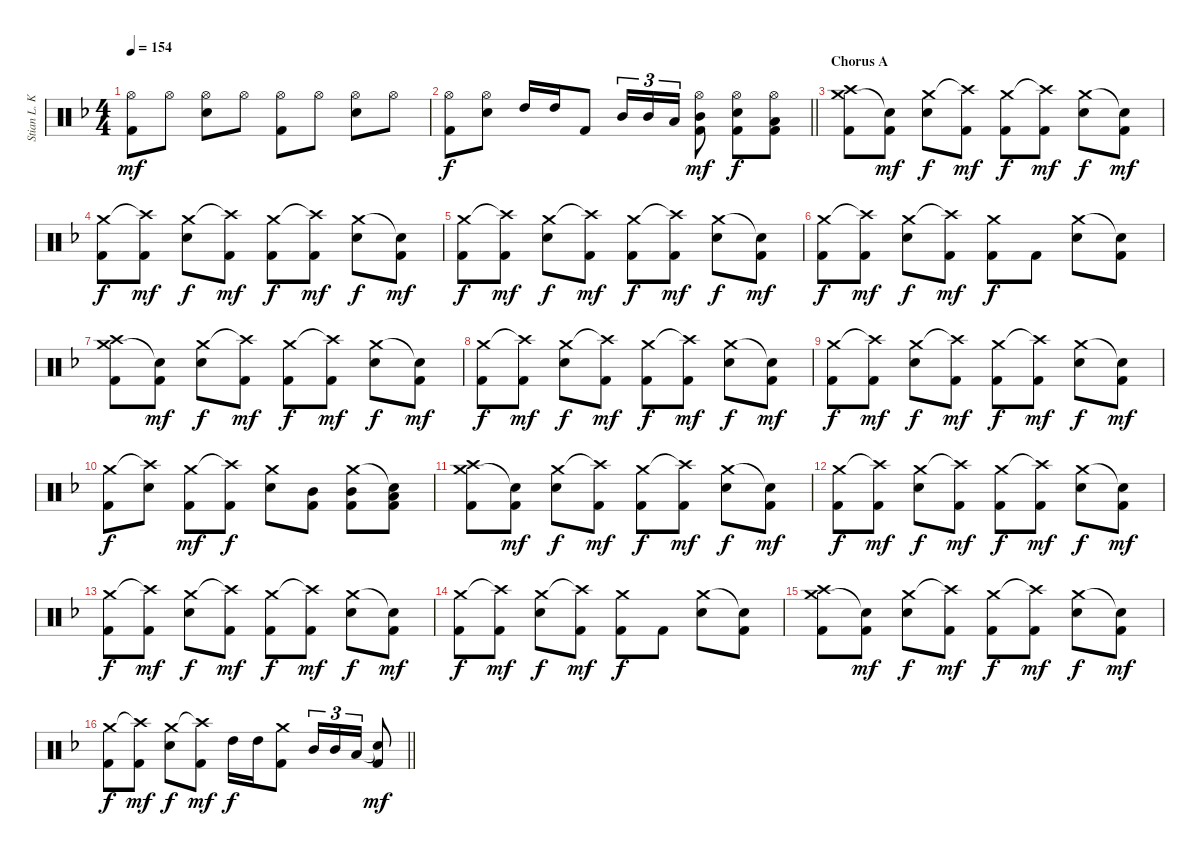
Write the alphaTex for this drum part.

\track ("Stian L. Kristoffersen" "Stian L. K") {instrument percussion}
\staff {score}
\articulation defaults
\ts (4 4)
\tempo 154
\clef neutral
\ks f
("Hi-Hat (open)" "Kick (hit) 2").8{dy mf} "Hi-Hat (open)".8 ("Hi-Hat (open)" "Snare (hit) 2").8 "Hi-Hat (open)".8 ("Hi-Hat (open)" "Kick (hit) 2").8 "Hi-Hat (open)".8 ("Hi-Hat (open)" "Snare (hit) 2").8 "Hi-Hat (open)".8 |
\barLineRight lightlight
("Hi-Hat (open)" "Kick (hit) 2").8{dy f} ("Hi-Hat (open)" "Snare (hit) 2").8 "High Tom (hit)".16 "High Tom (hit)".16 "Kick (hit) 2".8 "Mid Tom (hit)".16{tu (3 2)} "Mid Tom (hit)".16{tu (3 2)} "Low Tom (hit)".16{tu (3 2)} ("Hi-Hat (open)" "Mid Tom (hit)" "Kick (hit) 2").8{dy mf} ("Hi-Hat (open)" "Snare (hit) 2" "Kick (hit) 2").8{dy f} ("Hi-Hat (open)" "Low Tom (hit)" "Kick (hit) 2").8 |
\section ("" "Chorus A")
("Crash medium (hit)" "Crash high (hit)" "Kick (hit) 2").8 ("Snare (hit)"{t} "Kick (hit) 2").8{dy mf} ("Crash medium (hit)" "Snare (hit) 2").8{dy f} ("Crash high (hit)"{t} "Kick (hit) 2").8{dy mf} ("Crash medium (hit)" "Kick (hit) 2").8{dy f} ("Crash high (hit)"{t} "Kick (hit) 2").8{dy mf} ("Crash medium (hit)" "Snare (hit) 2").8{dy f} ("Snare (hit)"{t} "Kick (hit) 2").8{dy mf} |
("Crash medium (hit)" "Kick (hit) 2").8{dy f} ("Crash high (hit)"{t} "Kick (hit) 2").8{dy mf} ("Crash medium (hit)" "Snare (hit) 2").8{dy f} ("Crash high (hit)"{t} "Kick (hit) 2").8{dy mf} ("Crash medium (hit)" "Kick (hit) 2").8{dy f} ("Crash high (hit)"{t} "Kick (hit) 2").8{dy mf} ("Crash medium (hit)" "Snare (hit) 2").8{dy f} ("Snare (hit)"{t} "Kick (hit) 2").8{dy mf} |
("Crash medium (hit)" "Kick (hit) 2").8{dy f} ("Crash high (hit)"{t} "Kick (hit) 2").8{dy mf} ("Crash medium (hit)" "Snare (hit) 2").8{dy f} ("Crash high (hit)"{t} "Kick (hit) 2").8{dy mf} ("Crash medium (hit)" "Kick (hit) 2").8{dy f} ("Crash high (hit)"{t} "Kick (hit) 2").8{dy mf} ("Crash medium (hit)" "Snare (hit) 2").8{dy f} ("Snare (hit)"{t} "Kick (hit) 2").8{dy mf} |
("Crash medium (hit)" "Kick (hit) 2").8{dy f} ("Crash high (hit)"{t} "Kick (hit) 2").8{dy mf} ("Crash medium (hit)" "Snare (hit) 2").8{dy f} ("Crash high (hit)"{t} "Kick (hit) 2").8{dy mf} ("Crash medium (hit)" "Kick (hit) 2").8{dy f} "Kick (hit) 2".8 ("Crash medium (hit)" "Snare (hit) 2").8 ("Snare (hit)"{t} "Kick (hit) 2").8 |
("Crash medium (hit)" "Crash high (hit)" "Kick (hit) 2").8 ("Snare (hit)"{t} "Kick (hit) 2").8{dy mf} ("Crash medium (hit)" "Snare (hit) 2").8{dy f} ("Crash high (hit)"{t} "Kick (hit) 2").8{dy mf} ("Crash medium (hit)" "Kick (hit) 2").8{dy f} ("Crash high (hit)"{t} "Kick (hit) 2").8{dy mf} ("Crash medium (hit)" "Snare (hit) 2").8{dy f} ("Snare (hit)"{t} "Kick (hit) 2").8{dy mf} |
("Crash medium (hit)" "Kick (hit) 2").8{dy f} ("Crash high (hit)"{t} "Kick (hit) 2").8{dy mf} ("Crash medium (hit)" "Snare (hit) 2").8{dy f} ("Crash high (hit)"{t} "Kick (hit) 2").8{dy mf} ("Crash medium (hit)" "Kick (hit) 2").8{dy f} ("Crash high (hit)"{t} "Kick (hit) 2").8{dy mf} ("Crash medium (hit)" "Snare (hit) 2").8{dy f} ("Snare (hit)"{t} "Kick (hit) 2").8{dy mf} |
("Crash medium (hit)" "Kick (hit) 2").8{dy f} ("Crash high (hit)"{t} "Kick (hit) 2").8{dy mf} ("Crash medium (hit)" "Snare (hit) 2").8{dy f} ("Crash high (hit)"{t} "Kick (hit) 2").8{dy mf} ("Crash medium (hit)" "Kick (hit) 2").8{dy f} ("Crash high (hit)"{t} "Kick (hit) 2").8{dy mf} ("Crash medium (hit)" "Snare (hit) 2").8{dy f} ("Snare (hit)"{t} "Kick (hit) 2").8{dy mf} |
("Crash medium (hit)" "Kick (hit) 2").8{dy f} ("Crash high (hit)"{t} "Snare (hit) 2").8 ("Crash medium (hit)" "Kick (hit) 2").8{dy mf} ("Crash high (hit)"{t} "Kick (hit) 2").8{dy f} ("Crash medium (hit)" "Snare (hit) 2").8 ("Mid Tom (hit)" "Kick (hit) 2").8 ("Crash medium (hit)" "Mid Tom (hit)" "Kick (hit) 2").8 ("Snare (hit)"{t} "Low Tom (hit)" "Kick (hit) 2").8 |
("Crash medium (hit)" "Crash high (hit)" "Kick (hit) 2").8 ("Snare (hit)"{t} "Kick (hit) 2").8{dy mf} ("Crash medium (hit)" "Snare (hit) 2").8{dy f} ("Crash high (hit)"{t} "Kick (hit) 2").8{dy mf} ("Crash medium (hit)" "Kick (hit) 2").8{dy f} ("Crash high (hit)"{t} "Kick (hit) 2").8{dy mf} ("Crash medium (hit)" "Snare (hit) 2").8{dy f} ("Snare (hit)"{t} "Kick (hit) 2").8{dy mf} |
("Crash medium (hit)" "Kick (hit) 2").8{dy f} ("Crash high (hit)"{t} "Kick (hit) 2").8{dy mf} ("Crash medium (hit)" "Snare (hit) 2").8{dy f} ("Crash high (hit)"{t} "Kick (hit) 2").8{dy mf} ("Crash medium (hit)" "Kick (hit) 2").8{dy f} ("Crash high (hit)"{t} "Kick (hit) 2").8{dy mf} ("Crash medium (hit)" "Snare (hit) 2").8{dy f} ("Snare (hit)"{t} "Kick (hit) 2").8{dy mf} |
("Crash medium (hit)" "Kick (hit) 2").8{dy f} ("Crash high (hit)"{t} "Kick (hit) 2").8{dy mf} ("Crash medium (hit)" "Snare (hit) 2").8{dy f} ("Crash high (hit)"{t} "Kick (hit) 2").8{dy mf} ("Crash medium (hit)" "Kick (hit) 2").8{dy f} ("Crash high (hit)"{t} "Kick (hit) 2").8{dy mf} ("Crash medium (hit)" "Snare (hit) 2").8{dy f} ("Snare (hit)"{t} "Kick (hit) 2").8{dy mf} |
("Crash medium (hit)" "Kick (hit) 2").8{dy f} ("Crash high (hit)"{t} "Kick (hit) 2").8{dy mf} ("Crash medium (hit)" "Snare (hit) 2").8{dy f} ("Crash high (hit)"{t} "Kick (hit) 2").8{dy mf} ("Crash medium (hit)" "Kick (hit) 2").8{dy f} "Kick (hit) 2".8 ("Crash medium (hit)" "Snare (hit) 2").8 ("Snare (hit)"{t} "Kick (hit) 2").8 |
("Crash medium (hit)" "Crash high (hit)" "Kick (hit) 2").8 ("Snare (hit)"{t} "Kick (hit) 2").8{dy mf} ("Crash medium (hit)" "Snare (hit) 2").8{dy f} ("Crash high (hit)"{t} "Kick (hit) 2").8{dy mf} ("Crash medium (hit)" "Kick (hit) 2").8{dy f} ("Crash high (hit)"{t} "Kick (hit) 2").8{dy mf} ("Crash medium (hit)" "Snare (hit) 2").8{dy f} ("Snare (hit)"{t} "Kick (hit) 2").8{dy mf} |
\barLineRight lightlight
("Crash medium (hit)" "Kick (hit) 2").8{dy f} ("Crash high (hit)"{t} "Kick (hit) 2").8{dy mf} ("Crash medium (hit)" "Snare (hit) 2").8{dy f} ("Crash high (hit)"{t} "Kick (hit) 2").8{dy mf} "High Tom (hit)".16{dy f} "High Tom (hit)".16 ("Crash medium (hit)" "Kick (hit) 2").8 "Mid Tom (hit)".16{tu (3 2)} "Mid Tom (hit)".16{tu (3 2)} "Low Tom (hit)".16{tu (3 2)} ("Snare (hit)"{t} "Kick (hit) 2").8{dy mf}
